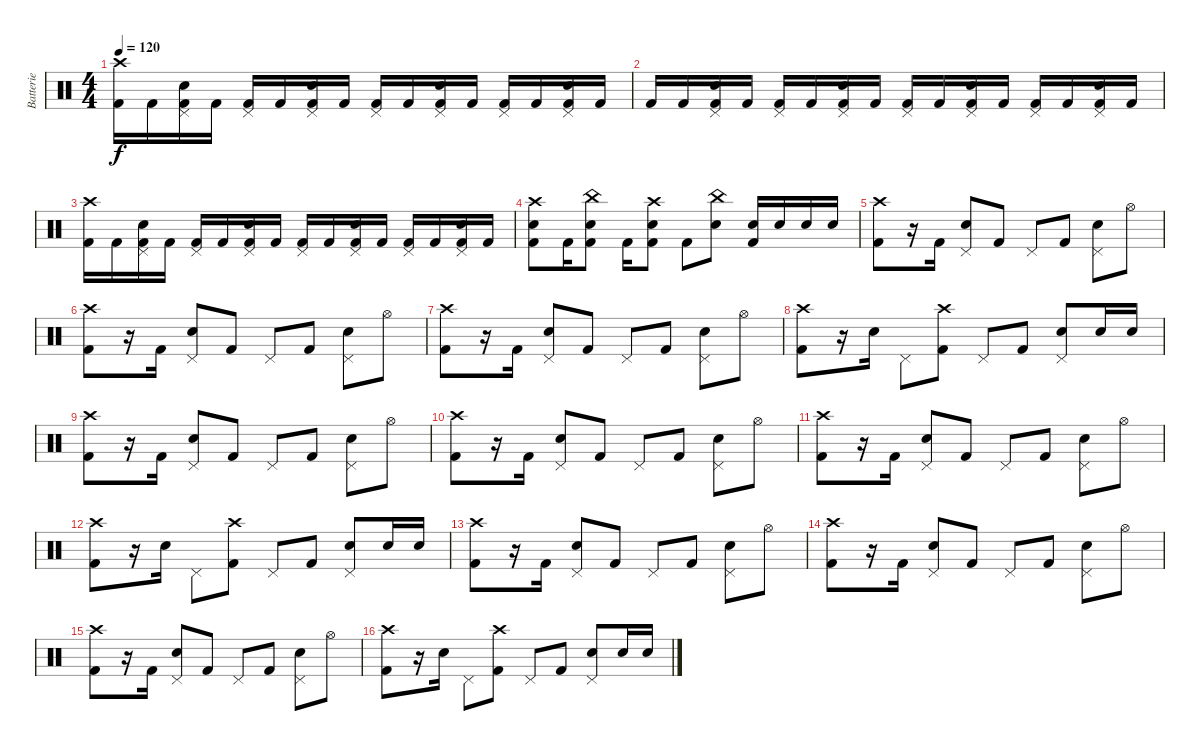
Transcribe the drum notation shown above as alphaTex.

\track ("Batterie" "Batterie") {instrument percussion}
\staff {score}
\articulation defaults
\ts (4 4)
\tempo 120
\clef neutral
\ks c
("Crash high (hit)" "Kick (hit) 2").16{dy f} "Kick (hit) 2".16 ("Snare (hit) 2" "Kick (hit) 2" "Pedal Hi-Hat (hit)").16 "Kick (hit) 2".16 ("Kick (hit) 2" "Pedal Hi-Hat (hit)").16 "Kick (hit) 2".16 ("Snare (hit) 2" "Kick (hit) 2" "Pedal Hi-Hat (hit)").16 "Kick (hit) 2".16 ("Kick (hit) 2" "Pedal Hi-Hat (hit)").16 "Kick (hit) 2".16 ("Snare (hit) 2" "Kick (hit) 2" "Pedal Hi-Hat (hit)").16 "Kick (hit) 2".16 ("Kick (hit) 2" "Pedal Hi-Hat (hit)").16 "Kick (hit) 2".16 ("Snare (hit) 2" "Kick (hit) 2" "Pedal Hi-Hat (hit)").16 "Kick (hit) 2".16 |
"Kick (hit) 2".16 "Kick (hit) 2".16 ("Snare (hit) 2" "Kick (hit) 2" "Pedal Hi-Hat (hit)").16 "Kick (hit) 2".16 ("Kick (hit) 2" "Pedal Hi-Hat (hit)").16 "Kick (hit) 2".16 ("Snare (hit) 2" "Kick (hit) 2" "Pedal Hi-Hat (hit)").16 "Kick (hit) 2".16 ("Kick (hit) 2" "Pedal Hi-Hat (hit)").16 "Kick (hit) 2".16 ("Snare (hit) 2" "Kick (hit) 2" "Pedal Hi-Hat (hit)").16 "Kick (hit) 2".16 ("Kick (hit) 2" "Pedal Hi-Hat (hit)").16 "Kick (hit) 2".16 ("Snare (hit) 2" "Kick (hit) 2" "Pedal Hi-Hat (hit)").16 "Kick (hit) 2".16 |
("Crash high (hit)" "Kick (hit) 2").16 "Kick (hit) 2".16 ("Snare (hit) 2" "Kick (hit) 2" "Pedal Hi-Hat (hit)").16 "Kick (hit) 2".16 ("Kick (hit) 2" "Pedal Hi-Hat (hit)").16 "Kick (hit) 2".16 ("Snare (hit) 2" "Kick (hit) 2" "Pedal Hi-Hat (hit)").16 "Kick (hit) 2".16 ("Kick (hit) 2" "Pedal Hi-Hat (hit)").16 "Kick (hit) 2".16 ("Snare (hit) 2" "Kick (hit) 2" "Pedal Hi-Hat (hit)").16 "Kick (hit) 2".16 ("Kick (hit) 2" "Pedal Hi-Hat (hit)").16 "Kick (hit) 2".16 ("Snare (hit) 2" "Kick (hit) 2" "Pedal Hi-Hat (hit)").16 "Kick (hit) 2".16 |
("Crash high (hit)" "Snare (hit) 2" "Kick (hit) 2").8 "Kick (hit) 2".16 ("China (hit)" "Snare (hit) 2" "Kick (hit) 2").8 "Kick (hit) 2".16 ("Crash high (hit)" "Snare (hit) 2" "Kick (hit) 2").8 "Kick (hit) 2".8 ("China (hit)" "Snare (hit) 2").8 ("Snare (hit) 2" "Kick (hit) 2").16 "Snare (hit) 2".16 "Snare (hit) 2".16 "Snare (hit) 2".16 |
("Crash high (hit)" "Kick (hit) 2").8 r.16 "Kick (hit) 2".16 ("Snare (hit) 2" "Pedal Hi-Hat (hit)").8 "Kick (hit) 2".8 "Pedal Hi-Hat (hit)".8 "Kick (hit) 2".8 ("Snare (hit) 2" "Pedal Hi-Hat (hit)").8 "Hi-Hat (open)".8 |
("Crash high (hit)" "Kick (hit) 2").8 r.16 "Kick (hit) 2".16 ("Snare (hit) 2" "Pedal Hi-Hat (hit)").8 "Kick (hit) 2".8 "Pedal Hi-Hat (hit)".8 "Kick (hit) 2".8 ("Snare (hit) 2" "Pedal Hi-Hat (hit)").8 "Hi-Hat (open)".8 |
("Crash high (hit)" "Kick (hit) 2").8 r.16 "Kick (hit) 2".16 ("Snare (hit) 2" "Pedal Hi-Hat (hit)").8 "Kick (hit) 2".8 "Pedal Hi-Hat (hit)".8 "Kick (hit) 2".8 ("Snare (hit) 2" "Pedal Hi-Hat (hit)").8 "Hi-Hat (open)".8 |
("Crash high (hit)" "Kick (hit) 2").8 r.16 "Snare (hit) 2".16 "Pedal Hi-Hat (hit)".8 ("Crash high (hit)" "Kick (hit) 2").8 "Pedal Hi-Hat (hit)".8 "Kick (hit) 2".8 ("Snare (hit) 2" "Pedal Hi-Hat (hit)").8 "Snare (hit) 2".16 "Snare (hit) 2".16 |
("Crash high (hit)" "Kick (hit) 2").8 r.16 "Kick (hit) 2".16 ("Snare (hit) 2" "Pedal Hi-Hat (hit)").8 "Kick (hit) 2".8 "Pedal Hi-Hat (hit)".8 "Kick (hit) 2".8 ("Snare (hit) 2" "Pedal Hi-Hat (hit)").8 "Hi-Hat (open)".8 |
("Crash high (hit)" "Kick (hit) 2").8 r.16 "Kick (hit) 2".16 ("Snare (hit) 2" "Pedal Hi-Hat (hit)").8 "Kick (hit) 2".8 "Pedal Hi-Hat (hit)".8 "Kick (hit) 2".8 ("Snare (hit) 2" "Pedal Hi-Hat (hit)").8 "Hi-Hat (open)".8 |
("Crash high (hit)" "Kick (hit) 2").8 r.16 "Kick (hit) 2".16 ("Snare (hit) 2" "Pedal Hi-Hat (hit)").8 "Kick (hit) 2".8 "Pedal Hi-Hat (hit)".8 "Kick (hit) 2".8 ("Snare (hit) 2" "Pedal Hi-Hat (hit)").8 "Hi-Hat (open)".8 |
("Crash high (hit)" "Kick (hit) 2").8 r.16 "Snare (hit) 2".16 "Pedal Hi-Hat (hit)".8 ("Crash high (hit)" "Kick (hit) 2").8 "Pedal Hi-Hat (hit)".8 "Kick (hit) 2".8 ("Snare (hit) 2" "Pedal Hi-Hat (hit)").8 "Snare (hit) 2".16 "Snare (hit) 2".16 |
("Crash high (hit)" "Kick (hit) 2").8 r.16 "Kick (hit) 2".16 ("Snare (hit) 2" "Pedal Hi-Hat (hit)").8 "Kick (hit) 2".8 "Pedal Hi-Hat (hit)".8 "Kick (hit) 2".8 ("Snare (hit) 2" "Pedal Hi-Hat (hit)").8 "Hi-Hat (open)".8 |
("Crash high (hit)" "Kick (hit) 2").8 r.16 "Kick (hit) 2".16 ("Snare (hit) 2" "Pedal Hi-Hat (hit)").8 "Kick (hit) 2".8 "Pedal Hi-Hat (hit)".8 "Kick (hit) 2".8 ("Snare (hit) 2" "Pedal Hi-Hat (hit)").8 "Hi-Hat (open)".8 |
("Crash high (hit)" "Kick (hit) 2").8 r.16 "Kick (hit) 2".16 ("Snare (hit) 2" "Pedal Hi-Hat (hit)").8 "Kick (hit) 2".8 "Pedal Hi-Hat (hit)".8 "Kick (hit) 2".8 ("Snare (hit) 2" "Pedal Hi-Hat (hit)").8 "Hi-Hat (open)".8 |
("Crash high (hit)" "Kick (hit) 2").8 r.16 "Snare (hit) 2".16 "Pedal Hi-Hat (hit)".8 ("Crash high (hit)" "Kick (hit) 2").8 "Pedal Hi-Hat (hit)".8 "Kick (hit) 2".8 ("Snare (hit) 2" "Pedal Hi-Hat (hit)").8 "Snare (hit) 2".16 "Snare (hit) 2".16
